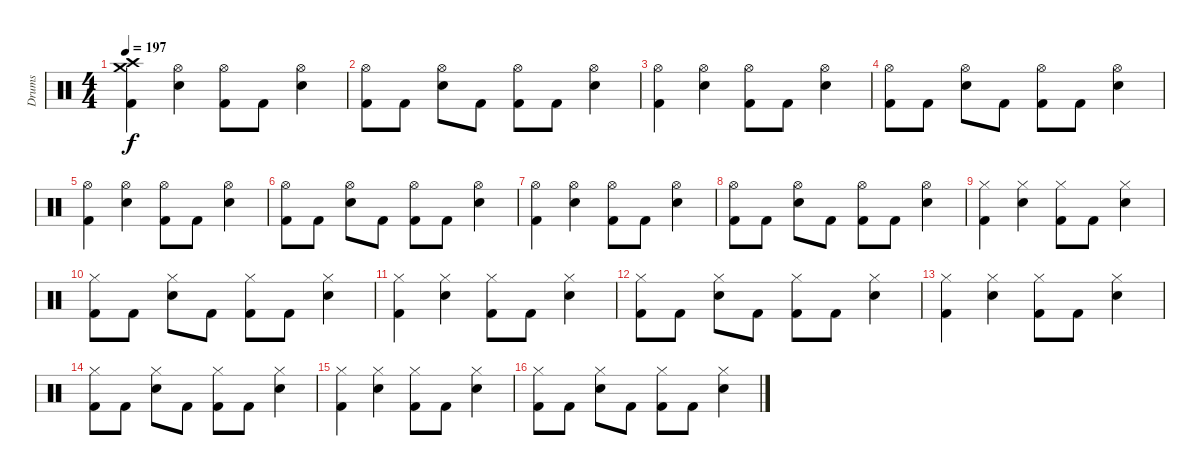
\track ("Drums" "Drums") {instrument percussion}
\staff {score}
\articulation defaults
\ts (4 4)
\tempo 197
\clef neutral
\ks c
("Crash high (hit)" "Crash medium (hit)" "Kick (hit) 2").4{dy f} ("Hi-Hat (open)" "Electric Snare (hit)").4 ("Hi-Hat (open)" "Kick (hit) 2").8 "Kick (hit) 2".8 ("Hi-Hat (open)" "Electric Snare (hit)").4 |
("Hi-Hat (open)" "Kick (hit) 2").8 "Kick (hit) 2".8 ("Hi-Hat (open)" "Electric Snare (hit)").8 "Kick (hit) 2".8 ("Hi-Hat (open)" "Kick (hit) 2").8 "Kick (hit) 2".8 ("Hi-Hat (open)" "Electric Snare (hit)").4 |
("Hi-Hat (open)" "Kick (hit) 2").4 ("Hi-Hat (open)" "Electric Snare (hit)").4 ("Hi-Hat (open)" "Kick (hit) 2").8 "Kick (hit) 2".8 ("Hi-Hat (open)" "Electric Snare (hit)").4 |
("Hi-Hat (open)" "Kick (hit) 2").8 "Kick (hit) 2".8 ("Hi-Hat (open)" "Electric Snare (hit)").8 "Kick (hit) 2".8 ("Hi-Hat (open)" "Kick (hit) 2").8 "Kick (hit) 2".8 ("Hi-Hat (open)" "Electric Snare (hit)").4 |
("Hi-Hat (open)" "Kick (hit) 2").4 ("Hi-Hat (open)" "Electric Snare (hit)").4 ("Hi-Hat (open)" "Kick (hit) 2").8 "Kick (hit) 2".8 ("Hi-Hat (open)" "Electric Snare (hit)").4 |
("Hi-Hat (open)" "Kick (hit) 2").8 "Kick (hit) 2".8 ("Hi-Hat (open)" "Electric Snare (hit)").8 "Kick (hit) 2".8 ("Hi-Hat (open)" "Kick (hit) 2").8 "Kick (hit) 2".8 ("Hi-Hat (open)" "Electric Snare (hit)").4 |
("Hi-Hat (open)" "Kick (hit) 2").4 ("Hi-Hat (open)" "Electric Snare (hit)").4 ("Hi-Hat (open)" "Kick (hit) 2").8 "Kick (hit) 2".8 ("Hi-Hat (open)" "Electric Snare (hit)").4 |
("Hi-Hat (open)" "Kick (hit) 2").8 "Kick (hit) 2".8 ("Hi-Hat (open)" "Electric Snare (hit)").8 "Kick (hit) 2".8 ("Hi-Hat (open)" "Kick (hit) 2").8 "Kick (hit) 2".8 ("Hi-Hat (open)" "Electric Snare (hit)").4 |
("Hi-Hat (closed)" "Kick (hit) 2").4 ("Hi-Hat (closed)" "Electric Snare (hit)").4 ("Hi-Hat (closed)" "Kick (hit) 2").8 "Kick (hit) 2".8 ("Hi-Hat (closed)" "Electric Snare (hit)").4 |
("Hi-Hat (closed)" "Kick (hit) 2").8 "Kick (hit) 2".8 ("Hi-Hat (closed)" "Electric Snare (hit)").8 "Kick (hit) 2".8 ("Hi-Hat (closed)" "Kick (hit) 2").8 "Kick (hit) 2".8 ("Hi-Hat (closed)" "Electric Snare (hit)").4 |
("Hi-Hat (closed)" "Kick (hit) 2").4 ("Hi-Hat (closed)" "Electric Snare (hit)").4 ("Hi-Hat (closed)" "Kick (hit) 2").8 "Kick (hit) 2".8 ("Hi-Hat (closed)" "Electric Snare (hit)").4 |
("Hi-Hat (closed)" "Kick (hit) 2").8 "Kick (hit) 2".8 ("Hi-Hat (closed)" "Electric Snare (hit)").8 "Kick (hit) 2".8 ("Hi-Hat (closed)" "Kick (hit) 2").8 "Kick (hit) 2".8 ("Hi-Hat (closed)" "Electric Snare (hit)").4 |
("Hi-Hat (closed)" "Kick (hit) 2").4 ("Hi-Hat (closed)" "Electric Snare (hit)").4 ("Hi-Hat (closed)" "Kick (hit) 2").8 "Kick (hit) 2".8 ("Hi-Hat (closed)" "Electric Snare (hit)").4 |
("Hi-Hat (closed)" "Kick (hit) 2").8 "Kick (hit) 2".8 ("Hi-Hat (closed)" "Electric Snare (hit)").8 "Kick (hit) 2".8 ("Hi-Hat (closed)" "Kick (hit) 2").8 "Kick (hit) 2".8 ("Hi-Hat (closed)" "Electric Snare (hit)").4 |
("Hi-Hat (closed)" "Kick (hit) 2").4 ("Hi-Hat (closed)" "Electric Snare (hit)").4 ("Hi-Hat (closed)" "Kick (hit) 2").8 "Kick (hit) 2".8 ("Hi-Hat (closed)" "Electric Snare (hit)").4 |
("Hi-Hat (closed)" "Kick (hit) 2").8 "Kick (hit) 2".8 ("Hi-Hat (closed)" "Electric Snare (hit)").8 "Kick (hit) 2".8 ("Hi-Hat (closed)" "Kick (hit) 2").8 "Kick (hit) 2".8 ("Hi-Hat (closed)" "Electric Snare (hit)").4
